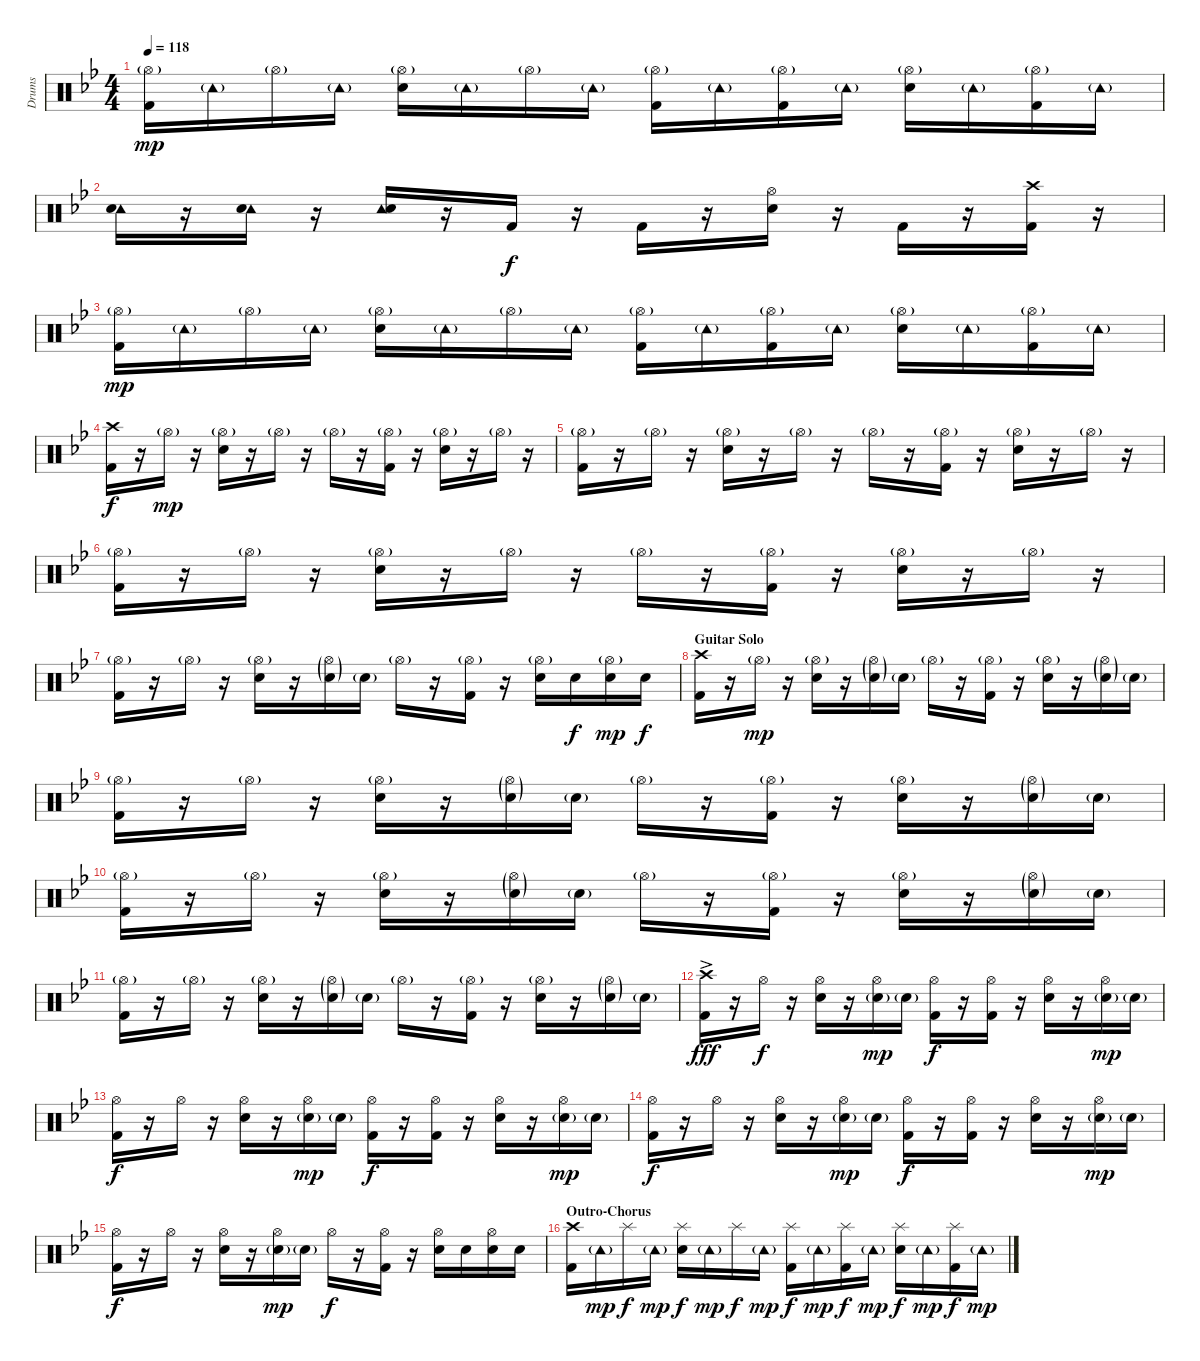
\track ("Drums" "Drums") {instrument percussion}
\staff {score}
\articulation defaults
\ts (4 4)
\tempo 118
\clef neutral
\ks bb
("Hi-Hat (open)"{g} "Kick (hit) 2").16{dy mp} "Tambourine (hit)"{g}.16 "Hi-Hat (open)"{g}.16 "Tambourine (hit)"{g}.16 ("Hi-Hat (open)"{g} "Electric Snare (hit)").16 "Tambourine (hit)"{g}.16 "Hi-Hat (open)"{g}.16 "Tambourine (hit)"{g}.16 ("Hi-Hat (open)"{g} "Kick (hit) 2").16 "Tambourine (hit)"{g}.16 ("Hi-Hat (open)"{g} "Kick (hit) 2").16 "Tambourine (hit)"{g}.16 ("Hi-Hat (open)"{g} "Electric Snare (hit)").16 "Tambourine (hit)"{g}.16 ("Hi-Hat (open)"{g} "Kick (hit) 2").16 "Tambourine (hit)"{g}.16 |
("Tambourine (hit)" "Electric Snare (hit)").16 r.16 ("Tambourine (hit)" "Electric Snare (hit)").16 r.16 ("Tambourine (hit)" "Electric Snare (hit)").16 r.16 "Kick (hit) 2".16{dy f} r.16 "Kick (hit) 2".16 r.16 ("Hi-Hat (open)" "Electric Snare (hit)").16 r.16 "Kick (hit) 2".16 r.16 ("Crash high (hit)" "Kick (hit) 2").16 r.16 |
("Hi-Hat (open)"{g} "Kick (hit) 2").16{dy mp} "Tambourine (hit)"{g}.16 "Hi-Hat (open)"{g}.16 "Tambourine (hit)"{g}.16 ("Hi-Hat (open)"{g} "Electric Snare (hit)").16 "Tambourine (hit)"{g}.16 "Hi-Hat (open)"{g}.16 "Tambourine (hit)"{g}.16 ("Hi-Hat (open)"{g} "Kick (hit) 2").16 "Tambourine (hit)"{g}.16 ("Hi-Hat (open)"{g} "Kick (hit) 2").16 "Tambourine (hit)"{g}.16 ("Hi-Hat (open)"{g} "Electric Snare (hit)").16 "Tambourine (hit)"{g}.16 ("Hi-Hat (open)"{g} "Kick (hit) 2").16 "Tambourine (hit)"{g}.16 |
("Crash high (hit)" "Kick (hit) 2").16{dy f} r.16 "Hi-Hat (open)"{g}.16{dy mp} r.16 ("Hi-Hat (open)"{g} "Electric Snare (hit)").16 r.16 "Hi-Hat (open)"{g}.16 r.16 "Hi-Hat (open)"{g}.16 r.16 ("Hi-Hat (open)"{g} "Kick (hit) 2").16 r.16 ("Hi-Hat (open)"{g} "Electric Snare (hit)").16 r.16 "Hi-Hat (open)"{g}.16 r.16 |
("Hi-Hat (open)"{g} "Kick (hit) 2").16 r.16 "Hi-Hat (open)"{g}.16 r.16 ("Hi-Hat (open)"{g} "Electric Snare (hit)").16 r.16 "Hi-Hat (open)"{g}.16 r.16 "Hi-Hat (open)"{g}.16 r.16 ("Hi-Hat (open)"{g} "Kick (hit) 2").16 r.16 ("Hi-Hat (open)"{g} "Electric Snare (hit)").16 r.16 "Hi-Hat (open)"{g}.16 r.16 |
("Hi-Hat (open)"{g} "Kick (hit) 2").16 r.16 "Hi-Hat (open)"{g}.16 r.16 ("Hi-Hat (open)"{g} "Electric Snare (hit)").16 r.16 "Hi-Hat (open)"{g}.16 r.16 "Hi-Hat (open)"{g}.16 r.16 ("Hi-Hat (open)"{g} "Kick (hit) 2").16 r.16 ("Hi-Hat (open)"{g} "Electric Snare (hit)").16 r.16 "Hi-Hat (open)"{g}.16 r.16 |
("Hi-Hat (open)"{g} "Kick (hit) 2").16 r.16 "Hi-Hat (open)"{g}.16 r.16 ("Hi-Hat (open)"{g} "Electric Snare (hit)").16 r.16 ("Hi-Hat (open)"{g} "Electric Snare (hit)"{g}).16 "Electric Snare (hit)"{g}.16 "Hi-Hat (open)"{g}.16 r.16 ("Hi-Hat (open)"{g} "Kick (hit) 2").16 r.16 ("Hi-Hat (open)"{g} "Electric Snare (hit)").16 "Electric Snare (hit)".16{dy f} ("Hi-Hat (open)"{g} "Electric Snare (hit)").16{dy mp} "Electric Snare (hit)".16{dy f} |
\section ("" "Guitar Solo")
("Crash high (hit)" "Kick (hit) 2").16 r.16 "Hi-Hat (open)"{g}.16{dy mp} r.16 ("Hi-Hat (open)"{g} "Electric Snare (hit)").16 r.16 ("Hi-Hat (open)"{g} "Electric Snare (hit)"{g}).16 "Electric Snare (hit)"{g}.16 "Hi-Hat (open)"{g}.16 r.16 ("Hi-Hat (open)"{g} "Kick (hit) 2").16 r.16 ("Hi-Hat (open)"{g} "Electric Snare (hit)").16 r.16 ("Hi-Hat (open)"{g} "Electric Snare (hit)"{g}).16 "Electric Snare (hit)"{g}.16 |
("Hi-Hat (open)"{g} "Kick (hit) 2").16 r.16 "Hi-Hat (open)"{g}.16 r.16 ("Hi-Hat (open)"{g} "Electric Snare (hit)").16 r.16 ("Hi-Hat (open)"{g} "Electric Snare (hit)"{g}).16 "Electric Snare (hit)"{g}.16 "Hi-Hat (open)"{g}.16 r.16 ("Hi-Hat (open)"{g} "Kick (hit) 2").16 r.16 ("Hi-Hat (open)"{g} "Electric Snare (hit)").16 r.16 ("Hi-Hat (open)"{g} "Electric Snare (hit)"{g}).16 "Electric Snare (hit)"{g}.16 |
("Hi-Hat (open)"{g} "Kick (hit) 2").16 r.16 "Hi-Hat (open)"{g}.16 r.16 ("Hi-Hat (open)"{g} "Electric Snare (hit)").16 r.16 ("Hi-Hat (open)"{g} "Electric Snare (hit)"{g}).16 "Electric Snare (hit)"{g}.16 "Hi-Hat (open)"{g}.16 r.16 ("Hi-Hat (open)"{g} "Kick (hit) 2").16 r.16 ("Hi-Hat (open)"{g} "Electric Snare (hit)").16 r.16 ("Hi-Hat (open)"{g} "Electric Snare (hit)"{g}).16 "Electric Snare (hit)"{g}.16 |
("Hi-Hat (open)"{g} "Kick (hit) 2").16 r.16 "Hi-Hat (open)"{g}.16 r.16 ("Hi-Hat (open)"{g} "Electric Snare (hit)").16 r.16 ("Hi-Hat (open)"{g} "Electric Snare (hit)"{g}).16 "Electric Snare (hit)"{g}.16 "Hi-Hat (open)"{g}.16 r.16 ("Hi-Hat (open)"{g} "Kick (hit) 2").16 r.16 ("Hi-Hat (open)"{g} "Electric Snare (hit)").16 r.16 ("Hi-Hat (open)"{g} "Electric Snare (hit)"{g}).16 "Electric Snare (hit)"{g}.16 |
("Crash high (hit)" "Kick (hit) 2"{ac}).16{dy fff} r.16 "Hi-Hat (open)".16{dy f} r.16 ("Hi-Hat (open)" "Electric Snare (hit)").16 r.16 ("Hi-Hat (open)" "Electric Snare (hit)"{g}).16{dy mp} "Electric Snare (hit)"{g}.16 ("Hi-Hat (open)" "Kick (hit) 2").16{dy f} r.16 ("Hi-Hat (open)" "Kick (hit) 2").16 r.16 ("Hi-Hat (open)" "Electric Snare (hit)").16 r.16 ("Hi-Hat (open)" "Electric Snare (hit)"{g}).16{dy mp} "Electric Snare (hit)"{g}.16 |
("Hi-Hat (open)" "Kick (hit) 2").16{dy f} r.16 "Hi-Hat (open)".16 r.16 ("Hi-Hat (open)" "Electric Snare (hit)").16 r.16 ("Hi-Hat (open)" "Electric Snare (hit)"{g}).16{dy mp} "Electric Snare (hit)"{g}.16 ("Hi-Hat (open)" "Kick (hit) 2").16{dy f} r.16 ("Hi-Hat (open)" "Kick (hit) 2").16 r.16 ("Hi-Hat (open)" "Electric Snare (hit)").16 r.16 ("Hi-Hat (open)" "Electric Snare (hit)"{g}).16{dy mp} "Electric Snare (hit)"{g}.16 |
("Hi-Hat (open)" "Kick (hit) 2").16{dy f} r.16 "Hi-Hat (open)".16 r.16 ("Hi-Hat (open)" "Electric Snare (hit)").16 r.16 ("Hi-Hat (open)" "Electric Snare (hit)"{g}).16{dy mp} "Electric Snare (hit)"{g}.16 ("Hi-Hat (open)" "Kick (hit) 2").16{dy f} r.16 ("Hi-Hat (open)" "Kick (hit) 2").16 r.16 ("Hi-Hat (open)" "Electric Snare (hit)").16 r.16 ("Hi-Hat (open)" "Electric Snare (hit)"{g}).16{dy mp} "Electric Snare (hit)"{g}.16 |
("Hi-Hat (open)" "Kick (hit) 2").16{dy f} r.16 "Hi-Hat (open)".16 r.16 ("Hi-Hat (open)" "Electric Snare (hit)").16 r.16 ("Hi-Hat (open)" "Electric Snare (hit)"{g}).16{dy mp} "Electric Snare (hit)"{g}.16 "Hi-Hat (open)".16{dy f} r.16 ("Hi-Hat (open)" "Kick (hit) 2").16 r.16 ("Hi-Hat (open)" "Electric Snare (hit)").16 "Electric Snare (hit)".16 ("Hi-Hat (open)" "Electric Snare (hit)").16 "Electric Snare (hit)".16 |
\section ("" "Outro-Chorus")
("Crash high (hit)" "Kick (hit) 2").16 "Tambourine (hit)"{g}.16{dy mp} "Splash (hit)".16{dy f} "Tambourine (hit)"{g}.16{dy mp} ("Splash (hit)" "Electric Snare (hit)").16{dy f} "Tambourine (hit)"{g}.16{dy mp} "Splash (hit)".16{dy f} "Tambourine (hit)"{g}.16{dy mp} ("Splash (hit)" "Kick (hit) 2").16{dy f} "Tambourine (hit)"{g}.16{dy mp} ("Splash (hit)" "Kick (hit) 2").16{dy f} "Tambourine (hit)"{g}.16{dy mp} ("Splash (hit)" "Electric Snare (hit)").16{dy f} "Tambourine (hit)"{g}.16{dy mp} ("Splash (hit)" "Kick (hit) 2").16{dy f} "Tambourine (hit)"{g}.16{dy mp}
